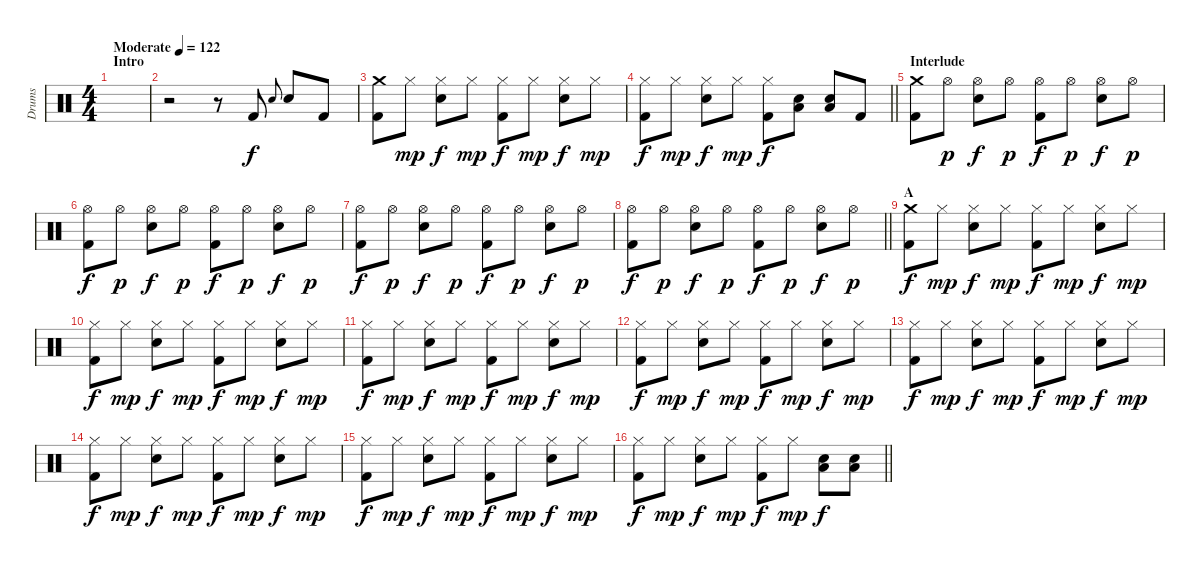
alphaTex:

\track ("Drums" "Drums") {instrument percussion}
\staff {score}
\articulation defaults
\ts (4 4)
\section ("" "Intro")
\tempo (122 "Moderate")
\clef neutral
\ks c
|
r.2 r.8 "Kick (hit) 2".8 "Electric Snare (hit)".8{gr onbeat} "Electric Snare (hit)".8 "Kick (hit) 2".8 |
("Crash medium (hit)" "Kick (hit) 2").8 "Hi-Hat (closed)".8{dy mp} ("Hi-Hat (closed)" "Electric Snare (hit)").8{dy f} "Hi-Hat (closed)".8{dy mp} ("Hi-Hat (closed)" "Kick (hit) 2").8{dy f} "Hi-Hat (closed)".8{dy mp} ("Hi-Hat (closed)" "Electric Snare (hit)").8{dy f} "Hi-Hat (closed)".8{dy mp} |
\barLineRight lightlight
("Hi-Hat (closed)" "Kick (hit) 2").8{dy f} "Hi-Hat (closed)".8{dy mp} ("Hi-Hat (closed)" "Electric Snare (hit)").8{dy f} "Hi-Hat (closed)".8{dy mp} ("Hi-Hat (closed)" "Kick (hit) 2").8{dy f} ("Electric Snare (hit)" "Low Floor Tom (hit)").8 ("Electric Snare (hit)" "Low Floor Tom (hit)").8 "Kick (hit) 2".8 |
\section ("" "Interlude")
("Crash medium (hit)" "Kick (hit) 2").8 "Hi-Hat (open)".8{dy p} ("Hi-Hat (open)" "Electric Snare (hit)").8{dy f} "Hi-Hat (open)".8{dy p} ("Hi-Hat (open)" "Kick (hit) 2").8{dy f} "Hi-Hat (open)".8{dy p} ("Hi-Hat (open)" "Electric Snare (hit)").8{dy f} "Hi-Hat (open)".8{dy p} |
("Hi-Hat (open)" "Kick (hit) 2").8{dy f} "Hi-Hat (open)".8{dy p} ("Hi-Hat (open)" "Electric Snare (hit)").8{dy f} "Hi-Hat (open)".8{dy p} ("Hi-Hat (open)" "Kick (hit) 2").8{dy f} "Hi-Hat (open)".8{dy p} ("Hi-Hat (open)" "Electric Snare (hit)").8{dy f} "Hi-Hat (open)".8{dy p} |
("Hi-Hat (open)" "Kick (hit) 2").8{dy f} "Hi-Hat (open)".8{dy p} ("Hi-Hat (open)" "Electric Snare (hit)").8{dy f} "Hi-Hat (open)".8{dy p} ("Hi-Hat (open)" "Kick (hit) 2").8{dy f} "Hi-Hat (open)".8{dy p} ("Hi-Hat (open)" "Electric Snare (hit)").8{dy f} "Hi-Hat (open)".8{dy p} |
\barLineRight lightlight
("Hi-Hat (open)" "Kick (hit) 2").8{dy f} "Hi-Hat (open)".8{dy p} ("Hi-Hat (open)" "Electric Snare (hit)").8{dy f} "Hi-Hat (open)".8{dy p} ("Hi-Hat (open)" "Kick (hit) 2").8{dy f} "Hi-Hat (open)".8{dy p} ("Hi-Hat (open)" "Electric Snare (hit)").8{dy f} "Hi-Hat (open)".8{dy p} |
\section ("" "A")
("Crash medium (hit)" "Kick (hit) 2").8{dy f} "Hi-Hat (closed)".8{dy mp} ("Hi-Hat (closed)" "Electric Snare (hit)").8{dy f} "Hi-Hat (closed)".8{dy mp} ("Hi-Hat (closed)" "Kick (hit) 2").8{dy f} "Hi-Hat (closed)".8{dy mp} ("Hi-Hat (closed)" "Electric Snare (hit)").8{dy f} "Hi-Hat (closed)".8{dy mp} |
("Hi-Hat (closed)" "Kick (hit) 2").8{dy f} "Hi-Hat (closed)".8{dy mp} ("Hi-Hat (closed)" "Electric Snare (hit)").8{dy f} "Hi-Hat (closed)".8{dy mp} ("Hi-Hat (closed)" "Kick (hit) 2").8{dy f} "Hi-Hat (closed)".8{dy mp} ("Hi-Hat (closed)" "Electric Snare (hit)").8{dy f} "Hi-Hat (closed)".8{dy mp} |
("Hi-Hat (closed)" "Kick (hit) 2").8{dy f} "Hi-Hat (closed)".8{dy mp} ("Hi-Hat (closed)" "Electric Snare (hit)").8{dy f} "Hi-Hat (closed)".8{dy mp} ("Hi-Hat (closed)" "Kick (hit) 2").8{dy f} "Hi-Hat (closed)".8{dy mp} ("Hi-Hat (closed)" "Electric Snare (hit)").8{dy f} "Hi-Hat (closed)".8{dy mp} |
("Hi-Hat (closed)" "Kick (hit) 2").8{dy f} "Hi-Hat (closed)".8{dy mp} ("Hi-Hat (closed)" "Electric Snare (hit)").8{dy f} "Hi-Hat (closed)".8{dy mp} ("Hi-Hat (closed)" "Kick (hit) 2").8{dy f} "Hi-Hat (closed)".8{dy mp} ("Hi-Hat (closed)" "Electric Snare (hit)").8{dy f} "Hi-Hat (closed)".8{dy mp} |
("Hi-Hat (closed)" "Kick (hit) 2").8{dy f} "Hi-Hat (closed)".8{dy mp} ("Hi-Hat (closed)" "Electric Snare (hit)").8{dy f} "Hi-Hat (closed)".8{dy mp} ("Hi-Hat (closed)" "Kick (hit) 2").8{dy f} "Hi-Hat (closed)".8{dy mp} ("Hi-Hat (closed)" "Electric Snare (hit)").8{dy f} "Hi-Hat (closed)".8{dy mp} |
("Hi-Hat (closed)" "Kick (hit) 2").8{dy f} "Hi-Hat (closed)".8{dy mp} ("Hi-Hat (closed)" "Electric Snare (hit)").8{dy f} "Hi-Hat (closed)".8{dy mp} ("Hi-Hat (closed)" "Kick (hit) 2").8{dy f} "Hi-Hat (closed)".8{dy mp} ("Hi-Hat (closed)" "Electric Snare (hit)").8{dy f} "Hi-Hat (closed)".8{dy mp} |
("Hi-Hat (closed)" "Kick (hit) 2").8{dy f} "Hi-Hat (closed)".8{dy mp} ("Hi-Hat (closed)" "Electric Snare (hit)").8{dy f} "Hi-Hat (closed)".8{dy mp} ("Hi-Hat (closed)" "Kick (hit) 2").8{dy f} "Hi-Hat (closed)".8{dy mp} ("Hi-Hat (closed)" "Electric Snare (hit)").8{dy f} "Hi-Hat (closed)".8{dy mp} |
\barLineRight lightlight
("Hi-Hat (closed)" "Kick (hit) 2").8{dy f} "Hi-Hat (closed)".8{dy mp} ("Hi-Hat (closed)" "Electric Snare (hit)").8{dy f} "Hi-Hat (closed)".8{dy mp} ("Hi-Hat (closed)" "Kick (hit) 2").8{dy f} "Hi-Hat (closed)".8{dy mp} ("Electric Snare (hit)" "Low Floor Tom (hit)").8{dy f} ("Electric Snare (hit)" "Low Floor Tom (hit)").8
